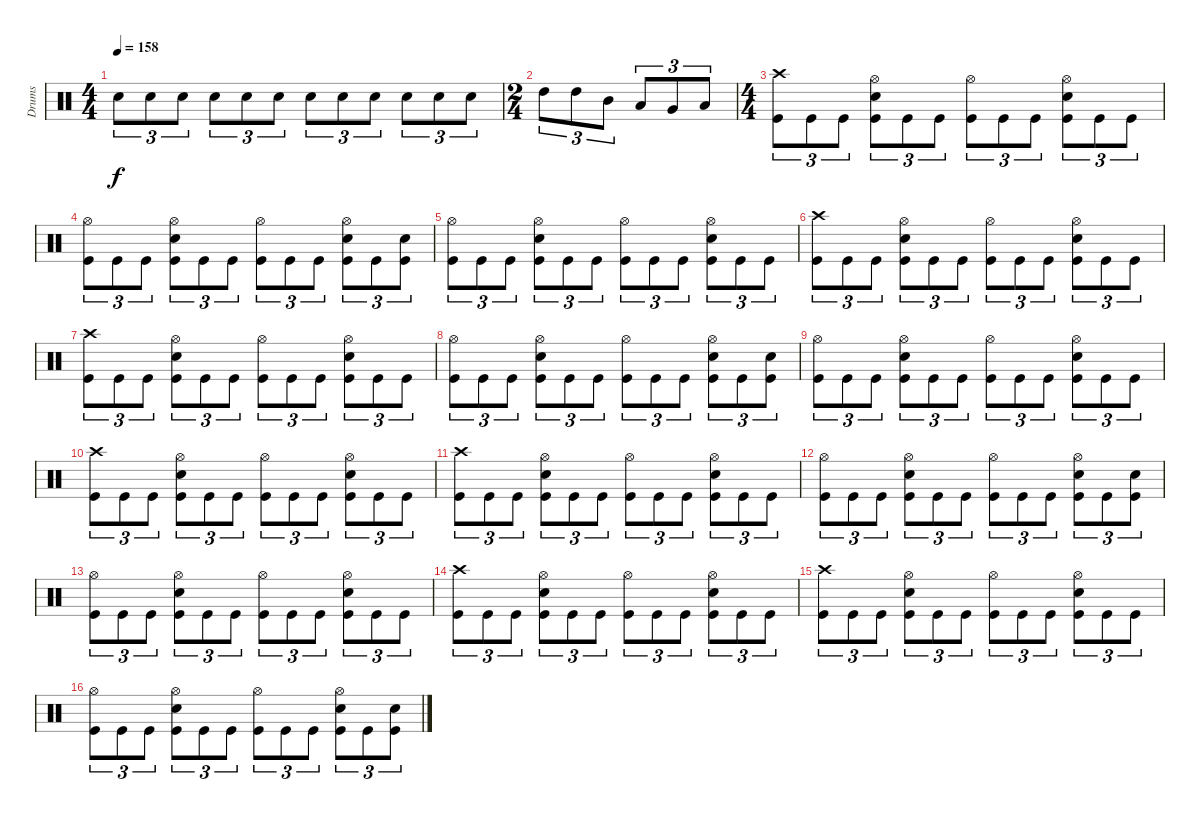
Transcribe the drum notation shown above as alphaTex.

\track ("Drums" "Drums") {instrument percussion}
\staff {score}
\articulation defaults
\ts (4 4)
\tempo 158
\clef neutral
\ks c "Electric Snare (hit)".8{tu (3 2) dy f} "Electric Snare (hit)".8{tu (3 2)} "Electric Snare (hit)".8{tu (3 2)} "Electric Snare (hit)".8{tu (3 2)} "Electric Snare (hit)".8{tu (3 2)} "Electric Snare (hit)".8{tu (3 2)} "Electric Snare (hit)".8{tu (3 2)} "Electric Snare (hit)".8{tu (3 2)} "Electric Snare (hit)".8{tu (3 2)} "Electric Snare (hit)".8{tu (3 2)} "Electric Snare (hit)".8{tu (3 2)} "Electric Snare (hit)".8{tu (3 2)}
|
\ts (2 4)
"High Tom (hit)".8{tu (3 2)} "High Tom (hit)".8{tu (3 2)} "Mid Tom (hit)".8{tu (3 2)} "Low Tom (hit)".8{tu (3 2)} "Very Low Tom (hit)".8{tu (3 2)} "Low Floor Tom (hit)".8{tu (3 2)} |
\ts (4 4)
("Crash high (hit)" "Kick (hit)").8{tu (3 2)} "Kick (hit)".8{tu (3 2)} "Kick (hit)".8{tu (3 2)} ("Hi-Hat (open)" "Electric Snare (hit)" "Kick (hit)").8{tu (3 2)} "Kick (hit)".8{tu (3 2)} "Kick (hit)".8{tu (3 2)} ("Hi-Hat (open)" "Kick (hit)").8{tu (3 2)} "Kick (hit)".8{tu (3 2)} "Kick (hit)".8{tu (3 2)} ("Hi-Hat (open)" "Electric Snare (hit)" "Kick (hit)").8{tu (3 2)} "Kick (hit)".8{tu (3 2)} "Kick (hit)".8{tu (3 2)} |
("Hi-Hat (open)" "Kick (hit)").8{tu (3 2)} "Kick (hit)".8{tu (3 2)} "Kick (hit)".8{tu (3 2)} ("Hi-Hat (open)" "Electric Snare (hit)" "Kick (hit)").8{tu (3 2)} "Kick (hit)".8{tu (3 2)} "Kick (hit)".8{tu (3 2)} ("Hi-Hat (open)" "Kick (hit)").8{tu (3 2)} "Kick (hit)".8{tu (3 2)} "Kick (hit)".8{tu (3 2)} ("Hi-Hat (open)" "Electric Snare (hit)" "Kick (hit)").8{tu (3 2)} "Kick (hit)".8{tu (3 2)} ("Electric Snare (hit)" "Kick (hit)").8{tu (3 2)} |
("Hi-Hat (open)" "Kick (hit)").8{tu (3 2)} "Kick (hit)".8{tu (3 2)} "Kick (hit)".8{tu (3 2)} ("Hi-Hat (open)" "Electric Snare (hit)" "Kick (hit)").8{tu (3 2)} "Kick (hit)".8{tu (3 2)} "Kick (hit)".8{tu (3 2)} ("Hi-Hat (open)" "Kick (hit)").8{tu (3 2)} "Kick (hit)".8{tu (3 2)} "Kick (hit)".8{tu (3 2)} ("Hi-Hat (open)" "Electric Snare (hit)" "Kick (hit)").8{tu (3 2)} "Kick (hit)".8{tu (3 2)} "Kick (hit)".8{tu (3 2)} |
("Crash high (hit)" "Kick (hit)").8{tu (3 2)} "Kick (hit)".8{tu (3 2)} "Kick (hit)".8{tu (3 2)} ("Hi-Hat (open)" "Electric Snare (hit)" "Kick (hit)").8{tu (3 2)} "Kick (hit)".8{tu (3 2)} "Kick (hit)".8{tu (3 2)} ("Hi-Hat (open)" "Kick (hit)").8{tu (3 2)} "Kick (hit)".8{tu (3 2)} "Kick (hit)".8{tu (3 2)} ("Hi-Hat (open)" "Electric Snare (hit)" "Kick (hit)").8{tu (3 2)} "Kick (hit)".8{tu (3 2)} "Kick (hit)".8{tu (3 2)} |
("Crash high (hit)" "Kick (hit)").8{tu (3 2)} "Kick (hit)".8{tu (3 2)} "Kick (hit)".8{tu (3 2)} ("Hi-Hat (open)" "Electric Snare (hit)" "Kick (hit)").8{tu (3 2)} "Kick (hit)".8{tu (3 2)} "Kick (hit)".8{tu (3 2)} ("Hi-Hat (open)" "Kick (hit)").8{tu (3 2)} "Kick (hit)".8{tu (3 2)} "Kick (hit)".8{tu (3 2)} ("Hi-Hat (open)" "Electric Snare (hit)" "Kick (hit)").8{tu (3 2)} "Kick (hit)".8{tu (3 2)} "Kick (hit)".8{tu (3 2)} |
("Hi-Hat (open)" "Kick (hit)").8{tu (3 2)} "Kick (hit)".8{tu (3 2)} "Kick (hit)".8{tu (3 2)} ("Hi-Hat (open)" "Electric Snare (hit)" "Kick (hit)").8{tu (3 2)} "Kick (hit)".8{tu (3 2)} "Kick (hit)".8{tu (3 2)} ("Hi-Hat (open)" "Kick (hit)").8{tu (3 2)} "Kick (hit)".8{tu (3 2)} "Kick (hit)".8{tu (3 2)} ("Hi-Hat (open)" "Electric Snare (hit)" "Kick (hit)").8{tu (3 2)} "Kick (hit)".8{tu (3 2)} ("Electric Snare (hit)" "Kick (hit)").8{tu (3 2)} |
("Hi-Hat (open)" "Kick (hit)").8{tu (3 2)} "Kick (hit)".8{tu (3 2)} "Kick (hit)".8{tu (3 2)} ("Hi-Hat (open)" "Electric Snare (hit)" "Kick (hit)").8{tu (3 2)} "Kick (hit)".8{tu (3 2)} "Kick (hit)".8{tu (3 2)} ("Hi-Hat (open)" "Kick (hit)").8{tu (3 2)} "Kick (hit)".8{tu (3 2)} "Kick (hit)".8{tu (3 2)} ("Hi-Hat (open)" "Electric Snare (hit)" "Kick (hit)").8{tu (3 2)} "Kick (hit)".8{tu (3 2)} "Kick (hit)".8{tu (3 2)} |
("Crash high (hit)" "Kick (hit)").8{tu (3 2)} "Kick (hit)".8{tu (3 2)} "Kick (hit)".8{tu (3 2)} ("Hi-Hat (open)" "Electric Snare (hit)" "Kick (hit)").8{tu (3 2)} "Kick (hit)".8{tu (3 2)} "Kick (hit)".8{tu (3 2)} ("Hi-Hat (open)" "Kick (hit)").8{tu (3 2)} "Kick (hit)".8{tu (3 2)} "Kick (hit)".8{tu (3 2)} ("Hi-Hat (open)" "Electric Snare (hit)" "Kick (hit)").8{tu (3 2)} "Kick (hit)".8{tu (3 2)} "Kick (hit)".8{tu (3 2)} |
("Crash high (hit)" "Kick (hit)").8{tu (3 2)} "Kick (hit)".8{tu (3 2)} "Kick (hit)".8{tu (3 2)} ("Hi-Hat (open)" "Electric Snare (hit)" "Kick (hit)").8{tu (3 2)} "Kick (hit)".8{tu (3 2)} "Kick (hit)".8{tu (3 2)} ("Hi-Hat (open)" "Kick (hit)").8{tu (3 2)} "Kick (hit)".8{tu (3 2)} "Kick (hit)".8{tu (3 2)} ("Hi-Hat (open)" "Electric Snare (hit)" "Kick (hit)").8{tu (3 2)} "Kick (hit)".8{tu (3 2)} "Kick (hit)".8{tu (3 2)} |
("Hi-Hat (open)" "Kick (hit)").8{tu (3 2)} "Kick (hit)".8{tu (3 2)} "Kick (hit)".8{tu (3 2)} ("Hi-Hat (open)" "Electric Snare (hit)" "Kick (hit)").8{tu (3 2)} "Kick (hit)".8{tu (3 2)} "Kick (hit)".8{tu (3 2)} ("Hi-Hat (open)" "Kick (hit)").8{tu (3 2)} "Kick (hit)".8{tu (3 2)} "Kick (hit)".8{tu (3 2)} ("Hi-Hat (open)" "Electric Snare (hit)" "Kick (hit)").8{tu (3 2)} "Kick (hit)".8{tu (3 2)} ("Electric Snare (hit)" "Kick (hit)").8{tu (3 2)} |
("Hi-Hat (open)" "Kick (hit)").8{tu (3 2)} "Kick (hit)".8{tu (3 2)} "Kick (hit)".8{tu (3 2)} ("Hi-Hat (open)" "Electric Snare (hit)" "Kick (hit)").8{tu (3 2)} "Kick (hit)".8{tu (3 2)} "Kick (hit)".8{tu (3 2)} ("Hi-Hat (open)" "Kick (hit)").8{tu (3 2)} "Kick (hit)".8{tu (3 2)} "Kick (hit)".8{tu (3 2)} ("Hi-Hat (open)" "Electric Snare (hit)" "Kick (hit)").8{tu (3 2)} "Kick (hit)".8{tu (3 2)} "Kick (hit)".8{tu (3 2)} |
("Crash high (hit)" "Kick (hit)").8{tu (3 2)} "Kick (hit)".8{tu (3 2)} "Kick (hit)".8{tu (3 2)} ("Hi-Hat (open)" "Electric Snare (hit)" "Kick (hit)").8{tu (3 2)} "Kick (hit)".8{tu (3 2)} "Kick (hit)".8{tu (3 2)} ("Hi-Hat (open)" "Kick (hit)").8{tu (3 2)} "Kick (hit)".8{tu (3 2)} "Kick (hit)".8{tu (3 2)} ("Hi-Hat (open)" "Electric Snare (hit)" "Kick (hit)").8{tu (3 2)} "Kick (hit)".8{tu (3 2)} "Kick (hit)".8{tu (3 2)} |
("Crash high (hit)" "Kick (hit)").8{tu (3 2)} "Kick (hit)".8{tu (3 2)} "Kick (hit)".8{tu (3 2)} ("Hi-Hat (open)" "Electric Snare (hit)" "Kick (hit)").8{tu (3 2)} "Kick (hit)".8{tu (3 2)} "Kick (hit)".8{tu (3 2)} ("Hi-Hat (open)" "Kick (hit)").8{tu (3 2)} "Kick (hit)".8{tu (3 2)} "Kick (hit)".8{tu (3 2)} ("Hi-Hat (open)" "Electric Snare (hit)" "Kick (hit)").8{tu (3 2)} "Kick (hit)".8{tu (3 2)} "Kick (hit)".8{tu (3 2)} |
("Hi-Hat (open)" "Kick (hit)").8{tu (3 2)} "Kick (hit)".8{tu (3 2)} "Kick (hit)".8{tu (3 2)} ("Hi-Hat (open)" "Electric Snare (hit)" "Kick (hit)").8{tu (3 2)} "Kick (hit)".8{tu (3 2)} "Kick (hit)".8{tu (3 2)} ("Hi-Hat (open)" "Kick (hit)").8{tu (3 2)} "Kick (hit)".8{tu (3 2)} "Kick (hit)".8{tu (3 2)} ("Hi-Hat (open)" "Electric Snare (hit)" "Kick (hit)").8{tu (3 2)} "Kick (hit)".8{tu (3 2)} ("Electric Snare (hit)" "Kick (hit)").8{tu (3 2)}
